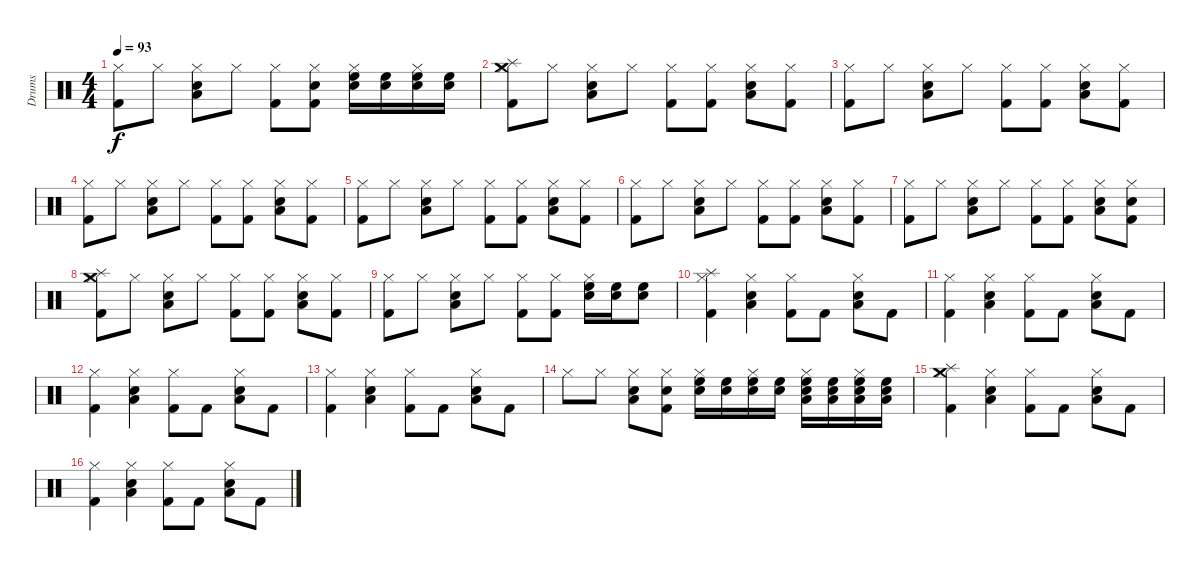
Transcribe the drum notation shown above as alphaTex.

\track ("Drums" "Drums") {instrument percussion}
\staff {score}
\articulation defaults
\ts (4 4)
\tempo 93
\clef neutral
\ks c
("Hi-Hat (closed)" "Kick (hit) 2").8{dy f} "Hi-Hat (closed)".8 ("Hi-Hat (closed)" "Snare (hit) 2" "Low Tom (hit)").8 "Hi-Hat (closed)".8 ("Hi-Hat (closed)" "Kick (hit) 2").8 ("Hi-Hat (closed)" "Kick (hit) 2" "Snare (hit) 2").8 ("Hi-Hat (closed)" "Snare (hit) 2" "High Floor Tom (hit)").16 ("Snare (hit) 2" "High Floor Tom (hit)").16 ("Hi-Hat (closed)" "Snare (hit) 2" "High Floor Tom (hit)").16 ("Snare (hit) 2" "High Floor Tom (hit)").16 |
("Hi-Hat (closed)" "Kick (hit) 2" "Splash (hit)" "Crash medium (hit)").8 "Hi-Hat (closed)".8 ("Hi-Hat (closed)" "Snare (hit) 2" "Low Tom (hit)").8 "Hi-Hat (closed)".8 ("Hi-Hat (closed)" "Kick (hit) 2").8 ("Hi-Hat (closed)" "Kick (hit) 2").8 ("Hi-Hat (closed)" "Snare (hit) 2" "Low Tom (hit)").8 ("Hi-Hat (closed)" "Kick (hit) 2").8 |
("Hi-Hat (closed)" "Kick (hit) 2").8 "Hi-Hat (closed)".8 ("Hi-Hat (closed)" "Snare (hit) 2" "Low Tom (hit)").8 "Hi-Hat (closed)".8 ("Hi-Hat (closed)" "Kick (hit) 2").8 ("Hi-Hat (closed)" "Kick (hit) 2").8 ("Hi-Hat (closed)" "Snare (hit) 2" "Low Tom (hit)").8 ("Hi-Hat (closed)" "Kick (hit) 2").8 |
("Hi-Hat (closed)" "Kick (hit) 2").8 "Hi-Hat (closed)".8 ("Hi-Hat (closed)" "Snare (hit) 2" "Low Tom (hit)").8 "Hi-Hat (closed)".8 ("Hi-Hat (closed)" "Kick (hit) 2").8 ("Hi-Hat (closed)" "Kick (hit) 2").8 ("Hi-Hat (closed)" "Snare (hit) 2" "Low Tom (hit)").8 ("Hi-Hat (closed)" "Kick (hit) 2").8 |
("Hi-Hat (closed)" "Kick (hit) 2").8 "Hi-Hat (closed)".8 ("Hi-Hat (closed)" "Snare (hit) 2" "Low Tom (hit)").8 "Hi-Hat (closed)".8 ("Hi-Hat (closed)" "Kick (hit) 2").8 ("Hi-Hat (closed)" "Kick (hit) 2").8 ("Hi-Hat (closed)" "Snare (hit) 2" "Low Tom (hit)").8 ("Hi-Hat (closed)" "Kick (hit) 2").8 |
("Hi-Hat (closed)" "Kick (hit) 2").8 "Hi-Hat (closed)".8 ("Hi-Hat (closed)" "Snare (hit) 2" "Low Tom (hit)").8 "Hi-Hat (closed)".8 ("Hi-Hat (closed)" "Kick (hit) 2").8 ("Hi-Hat (closed)" "Kick (hit) 2").8 ("Hi-Hat (closed)" "Snare (hit) 2" "Low Tom (hit)").8 ("Hi-Hat (closed)" "Kick (hit) 2").8 |
("Hi-Hat (closed)" "Kick (hit) 2").8 "Hi-Hat (closed)".8 ("Hi-Hat (closed)" "Snare (hit) 2" "Low Tom (hit)").8 "Hi-Hat (closed)".8 ("Hi-Hat (closed)" "Kick (hit) 2").8 ("Hi-Hat (closed)" "Kick (hit) 2").8 ("Hi-Hat (closed)" "Snare (hit) 2" "Low Tom (hit)").8 ("Hi-Hat (closed)" "Kick (hit) 2" "Snare (hit) 2").8 |
("Hi-Hat (closed)" "Kick (hit) 2" "Splash (hit)" "Crash medium (hit)").8 "Hi-Hat (closed)".8 ("Hi-Hat (closed)" "Snare (hit) 2" "Low Tom (hit)").8 "Hi-Hat (closed)".8 ("Hi-Hat (closed)" "Kick (hit) 2").8 ("Hi-Hat (closed)" "Kick (hit) 2").8 ("Hi-Hat (closed)" "Snare (hit) 2" "Low Tom (hit)").8 ("Hi-Hat (closed)" "Kick (hit) 2").8 |
("Hi-Hat (closed)" "Kick (hit) 2").8 "Hi-Hat (closed)".8 ("Hi-Hat (closed)" "Snare (hit) 2" "Low Tom (hit)").8 "Hi-Hat (closed)".8 ("Hi-Hat (closed)" "Kick (hit) 2").8 ("Hi-Hat (closed)" "Kick (hit) 2").8 ("Hi-Hat (closed)" "Snare (hit) 2" "High Floor Tom (hit)").16 ("Snare (hit) 2" "High Floor Tom (hit)").16 ("High Floor Tom (hit)" "Snare (hit) 2").8 |
("Hi-Hat (closed)" "Kick (hit) 2" "Splash (hit)").4 ("Hi-Hat (closed)" "Snare (hit) 2" "Low Tom (hit)").4 ("Hi-Hat (closed)" "Kick (hit) 2").8 "Kick (hit) 2".8 ("Hi-Hat (closed)" "Snare (hit) 2" "Low Tom (hit)").8 "Kick (hit) 2".8 |
("Hi-Hat (closed)" "Kick (hit) 2").4 ("Hi-Hat (closed)" "Snare (hit) 2" "Low Tom (hit)").4 ("Hi-Hat (closed)" "Kick (hit) 2").8 "Kick (hit) 2".8 ("Hi-Hat (closed)" "Snare (hit) 2" "Low Tom (hit)").8 "Kick (hit) 2".8 |
("Hi-Hat (closed)" "Kick (hit) 2").4 ("Hi-Hat (closed)" "Snare (hit) 2" "Low Tom (hit)").4 ("Hi-Hat (closed)" "Kick (hit) 2").8 "Kick (hit) 2".8 ("Hi-Hat (closed)" "Snare (hit) 2" "Low Tom (hit)").8 "Kick (hit) 2".8 |
("Hi-Hat (closed)" "Kick (hit) 2").4 ("Hi-Hat (closed)" "Snare (hit) 2" "Low Tom (hit)").4 ("Hi-Hat (closed)" "Kick (hit) 2").8 "Kick (hit) 2".8 ("Hi-Hat (closed)" "Snare (hit) 2" "Low Tom (hit)").8 "Kick (hit) 2".8 |
"Hi-Hat (closed)".8 "Hi-Hat (closed)".8 ("Hi-Hat (closed)" "Snare (hit) 2" "Low Tom (hit)").8 ("Hi-Hat (closed)" "Kick (hit) 2" "Snare (hit) 2").8 ("Hi-Hat (closed)" "High Floor Tom (hit)" "Snare (hit) 2").16 ("High Floor Tom (hit)" "Snare (hit) 2").16 ("Hi-Hat (closed)" "High Floor Tom (hit)" "Snare (hit) 2").16 ("High Floor Tom (hit)" "Snare (hit) 2").16 ("Hi-Hat (closed)" "High Floor Tom (hit)" "Snare (hit) 2" "Low Tom (hit)").16 ("High Floor Tom (hit)" "Snare (hit) 2" "Low Tom (hit)").16 ("Hi-Hat (closed)" "High Floor Tom (hit)" "Snare (hit) 2" "Low Tom (hit)").16 ("High Floor Tom (hit)" "Snare (hit) 2" "Low Tom (hit)").16 |
("Hi-Hat (closed)" "Kick (hit) 2" "Crash medium (hit)" "Splash (hit)").4 ("Hi-Hat (closed)" "Snare (hit) 2" "Low Tom (hit)").4 ("Hi-Hat (closed)" "Kick (hit) 2").8 "Kick (hit) 2".8 ("Hi-Hat (closed)" "Snare (hit) 2" "Low Tom (hit)").8 "Kick (hit) 2".8 |
("Hi-Hat (closed)" "Kick (hit) 2").4 ("Hi-Hat (closed)" "Snare (hit) 2" "Low Tom (hit)").4 ("Hi-Hat (closed)" "Kick (hit) 2").8 "Kick (hit) 2".8 ("Hi-Hat (closed)" "Snare (hit) 2" "Low Tom (hit)").8 "Kick (hit) 2".8
